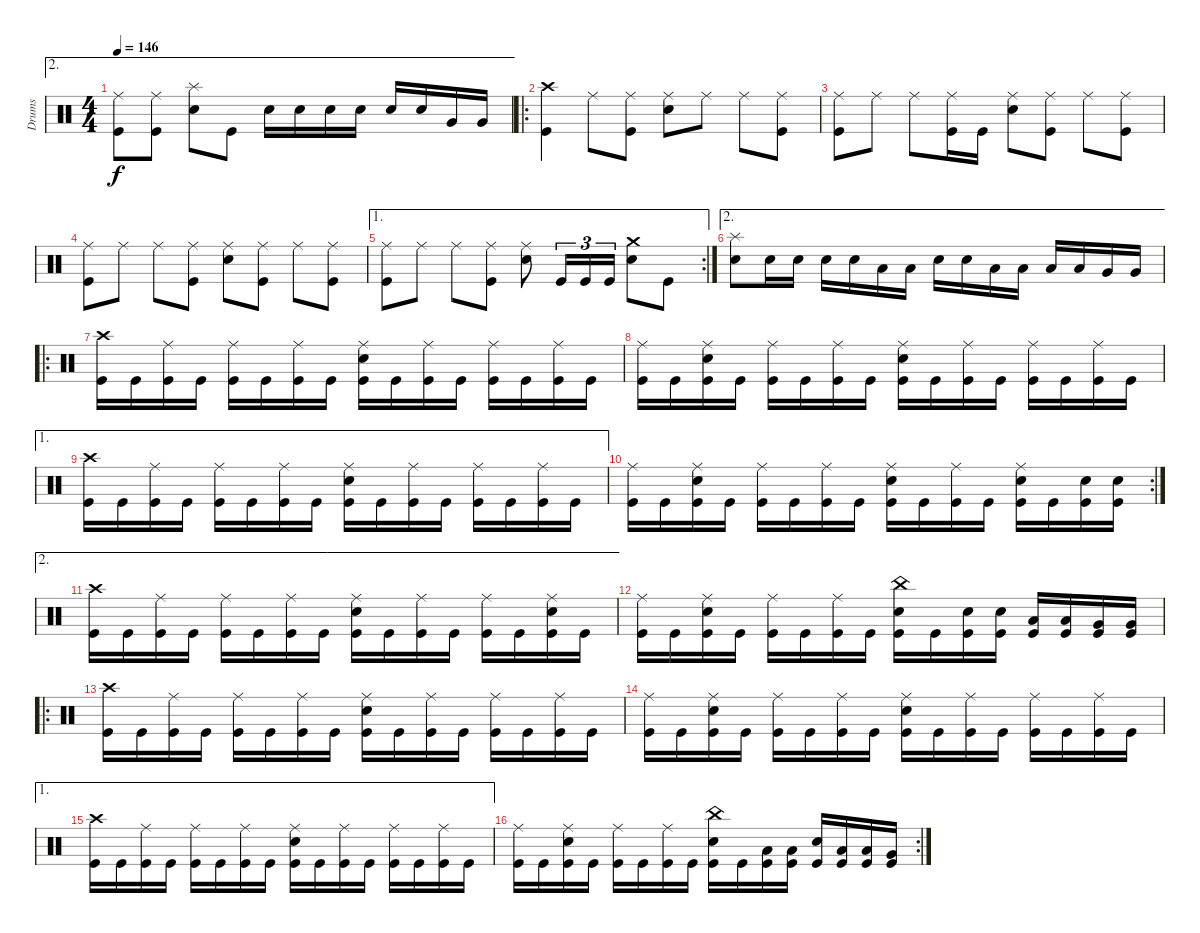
\track ("Drums" "Drums") {instrument percussion}
\staff {score}
\articulation defaults
\ae 2
\ts (4 4)
\tempo 146
\clef neutral
\ks c
("Ride (middle)" "Kick (hit)").8{dy f} ("Ride (middle)" "Kick (hit)").8 ("Splash (hit)" "Electric Snare (hit)").8 "Kick (hit)".8 "Electric Snare (hit)".16 "Electric Snare (hit)".16 "Electric Snare (hit)".16 "Electric Snare (hit)".16 "Electric Snare (hit)".16 "Electric Snare (hit)".16 "Very Low Tom (hit)".16 "Very Low Tom (hit)".16 |
\ro
("Crash high (hit)" "Kick (hit)").4 "Ride (middle)".8 ("Ride (middle)" "Kick (hit)").8 ("Ride (middle)" "Electric Snare (hit)").8 "Ride (middle)".8 "Ride (middle)".8 ("Ride (middle)" "Kick (hit)").8 |
("Ride (middle)" "Kick (hit)").8 "Ride (middle)".8 "Ride (middle)".8 ("Ride (middle)" "Kick (hit)").16 "Kick (hit)".16 ("Ride (middle)" "Electric Snare (hit)").8 ("Ride (middle)" "Kick (hit)").8 "Ride (middle)".8 ("Ride (middle)" "Kick (hit)").8 |
("Ride (middle)" "Kick (hit)").8 "Ride (middle)".8 "Ride (middle)".8 ("Ride (middle)" "Kick (hit)").8 ("Ride (middle)" "Electric Snare (hit)").8 ("Ride (middle)" "Kick (hit)").8 "Ride (middle)".8 ("Ride (middle)" "Kick (hit)").8 |
\ae 1
\rc 2
("Ride (middle)" "Kick (hit)").8 "Ride (middle)".8 "Ride (middle)".8 ("Ride (middle)" "Kick (hit)").8 ("Ride (middle)" "Electric Snare (hit)").8 "Kick (hit)".16{tu (3 2)} "Kick (hit)".16{tu (3 2)} "Kick (hit)".16{tu (3 2)} ("Crash medium (hit)" "Electric Snare (hit)").8 "Kick (hit)".8 |
\ae 2
("Splash (hit)" "Electric Snare (hit)").8 "Electric Snare (hit)".16 "Electric Snare (hit)".16 "Electric Snare (hit)".16 "Electric Snare (hit)".16 "Low Tom (hit)".16 "Low Tom (hit)".16 "Electric Snare (hit)".16 "Electric Snare (hit)".16 "Low Tom (hit)".16 "Low Tom (hit)".16 "Low Tom (hit)".16 "Low Tom (hit)".16 "Very Low Tom (hit)".16 "Very Low Tom (hit)".16 |
\ro
("Crash high (hit)" "Kick (hit)").16 "Kick (hit)".16 ("Ride (middle)" "Kick (hit)").16 "Kick (hit)".16 ("Ride (middle)" "Kick (hit)").16 "Kick (hit)".16 ("Ride (middle)" "Kick (hit)").16 "Kick (hit)".16 ("Ride (middle)" "Electric Snare (hit)" "Kick (hit)").16 "Kick (hit)".16 ("Ride (middle)" "Kick (hit)").16 "Kick (hit)".16 ("Ride (middle)" "Kick (hit)").16 "Kick (hit)".16 ("Ride (middle)" "Kick (hit)").16 "Kick (hit)".16 |
("Ride (middle)" "Kick (hit)").16 "Kick (hit)".16 ("Ride (middle)" "Electric Snare (hit)" "Kick (hit)").16 "Kick (hit)".16 ("Ride (middle)" "Kick (hit)").16 "Kick (hit)".16 ("Ride (middle)" "Kick (hit)").16 "Kick (hit)".16 ("Ride (middle)" "Electric Snare (hit)" "Kick (hit)").16 "Kick (hit)".16 ("Ride (middle)" "Kick (hit)").16 "Kick (hit)".16 ("Ride (middle)" "Kick (hit)").16 "Kick (hit)".16 ("Ride (middle)" "Kick (hit)").16 "Kick (hit)".16 |
\ae 1
("Crash high (hit)" "Kick (hit)").16 "Kick (hit)".16 ("Ride (middle)" "Kick (hit)").16 "Kick (hit)".16 ("Ride (middle)" "Kick (hit)").16 "Kick (hit)".16 ("Ride (middle)" "Kick (hit)").16 "Kick (hit)".16 ("Ride (middle)" "Electric Snare (hit)" "Kick (hit)").16 "Kick (hit)".16 ("Ride (middle)" "Kick (hit)").16 "Kick (hit)".16 ("Ride (middle)" "Kick (hit)").16 "Kick (hit)".16 ("Ride (middle)" "Kick (hit)").16 "Kick (hit)".16 |
\rc 2
("Ride (middle)" "Kick (hit)").16 "Kick (hit)".16 ("Ride (middle)" "Electric Snare (hit)" "Kick (hit)").16 "Kick (hit)".16 ("Ride (middle)" "Kick (hit)").16 "Kick (hit)".16 ("Ride (middle)" "Kick (hit)").16 "Kick (hit)".16 ("Ride (middle)" "Electric Snare (hit)" "Kick (hit)").16 "Kick (hit)".16 ("Ride (middle)" "Kick (hit)").16 "Kick (hit)".16 ("Ride (middle)" "Electric Snare (hit)" "Kick (hit)").16 "Kick (hit)".16 ("Electric Snare (hit)" "Kick (hit)").16 ("Electric Snare (hit)" "Kick (hit)").16 |
\ae 2
("Crash high (hit)" "Kick (hit)").16 "Kick (hit)".16 ("Ride (middle)" "Kick (hit)").16 "Kick (hit)".16 ("Ride (middle)" "Kick (hit)").16 "Kick (hit)".16 ("Ride (middle)" "Kick (hit)").16 "Kick (hit)".16 ("Ride (middle)" "Electric Snare (hit)" "Kick (hit)").16 "Kick (hit)".16 ("Ride (middle)" "Kick (hit)").16 "Kick (hit)".16 ("Ride (middle)" "Kick (hit)").16 "Kick (hit)".16 ("Ride (middle)" "Electric Snare (hit)" "Kick (hit)").16 "Kick (hit)".16 |
("Ride (middle)" "Kick (hit)").16 "Kick (hit)".16 ("Ride (middle)" "Electric Snare (hit)" "Kick (hit)").16 "Kick (hit)".16 ("Ride (middle)" "Kick (hit)").16 "Kick (hit)".16 ("Ride (middle)" "Kick (hit)").16 "Kick (hit)".16 ("China (hit)" "Electric Snare (hit)" "Kick (hit)").16 "Kick (hit)".16 ("Electric Snare (hit)" "Kick (hit)").16 ("Electric Snare (hit)" "Kick (hit)").16 ("Low Tom (hit)" "Kick (hit)").16 ("Low Tom (hit)" "Kick (hit)").16 ("Very Low Tom (hit)" "Kick (hit)").16 ("Very Low Tom (hit)" "Kick (hit)").16 |
\ro
("Crash high (hit)" "Kick (hit)").16 "Kick (hit)".16 ("Ride (middle)" "Kick (hit)").16 "Kick (hit)".16 ("Ride (middle)" "Kick (hit)").16 "Kick (hit)".16 ("Ride (middle)" "Kick (hit)").16 "Kick (hit)".16 ("Ride (middle)" "Electric Snare (hit)" "Kick (hit)").16 "Kick (hit)".16 ("Ride (middle)" "Kick (hit)").16 "Kick (hit)".16 ("Ride (middle)" "Kick (hit)").16 "Kick (hit)".16 ("Ride (middle)" "Kick (hit)").16 "Kick (hit)".16 |
("Ride (middle)" "Kick (hit)").16 "Kick (hit)".16 ("Ride (middle)" "Electric Snare (hit)" "Kick (hit)").16 "Kick (hit)".16 ("Ride (middle)" "Kick (hit)").16 "Kick (hit)".16 ("Ride (middle)" "Kick (hit)").16 "Kick (hit)".16 ("Ride (middle)" "Electric Snare (hit)" "Kick (hit)").16 "Kick (hit)".16 ("Ride (middle)" "Kick (hit)").16 "Kick (hit)".16 ("Ride (middle)" "Kick (hit)").16 "Kick (hit)".16 ("Ride (middle)" "Kick (hit)").16 "Kick (hit)".16 |
\ae 1
("Crash high (hit)" "Kick (hit)").16 "Kick (hit)".16 ("Ride (middle)" "Kick (hit)").16 "Kick (hit)".16 ("Ride (middle)" "Kick (hit)").16 "Kick (hit)".16 ("Ride (middle)" "Kick (hit)").16 "Kick (hit)".16 ("Ride (middle)" "Electric Snare (hit)" "Kick (hit)").16 "Kick (hit)".16 ("Ride (middle)" "Kick (hit)").16 "Kick (hit)".16 ("Ride (middle)" "Kick (hit)").16 "Kick (hit)".16 ("Ride (middle)" "Kick (hit)").16 "Kick (hit)".16 |
\rc 2
("Ride (middle)" "Kick (hit)").16 "Kick (hit)".16 ("Ride (middle)" "Electric Snare (hit)" "Kick (hit)").16 "Kick (hit)".16 ("Ride (middle)" "Kick (hit)").16 "Kick (hit)".16 ("Ride (middle)" "Kick (hit)").16 "Kick (hit)".16 ("China (hit)" "Electric Snare (hit)" "Kick (hit)").16 "Kick (hit)".16 ("Low Tom (hit)" "Kick (hit)").16 ("Low Tom (hit)" "Kick (hit)").16 ("Electric Snare (hit)" "Kick (hit)").16 ("Low Tom (hit)" "Kick (hit)").16 ("Low Tom (hit)" "Kick (hit)").16 ("Very Low Tom (hit)" "Kick (hit)").16
